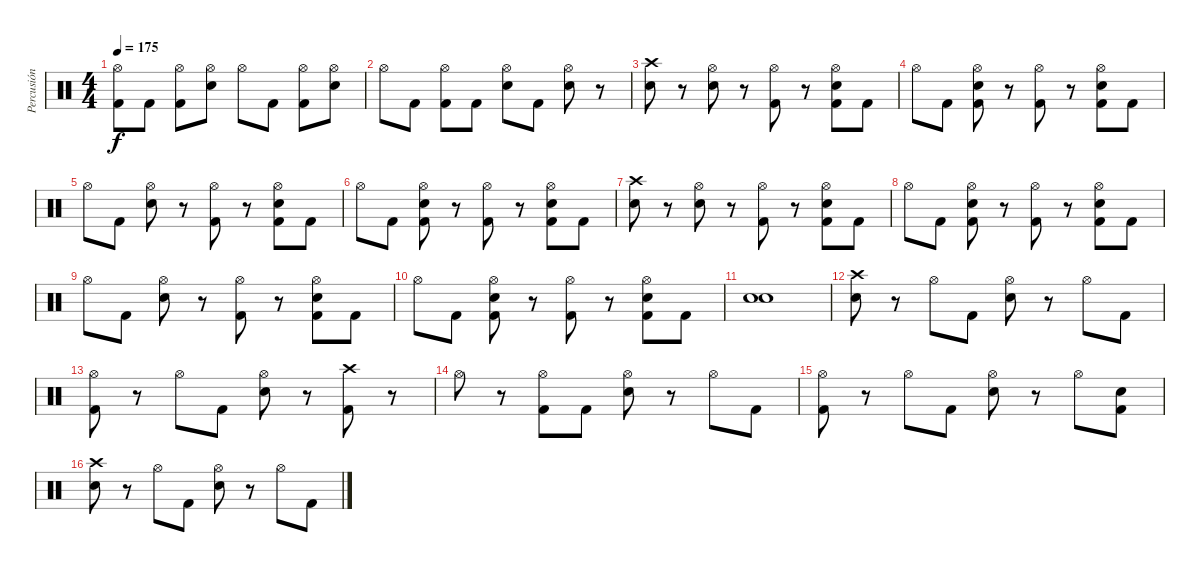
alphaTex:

\track ("Percusión" "Percusión") {instrument percussion}
\staff {score}
\articulation defaults
\ts (4 4)
\tempo 175
\clef neutral
\ks c
("Hi-Hat (open)" "Kick (hit) 2").8{dy f} "Kick (hit) 2".8 ("Hi-Hat (open)" "Kick (hit) 2").8 ("Hi-Hat (open)" "Electric Snare (hit)").8 "Hi-Hat (open)".8 "Kick (hit) 2".8 ("Hi-Hat (open)" "Kick (hit) 2").8 ("Hi-Hat (open)" "Electric Snare (hit)").8 |
"Hi-Hat (open)".8 "Kick (hit) 2".8 ("Hi-Hat (open)" "Kick (hit) 2").8 "Kick (hit) 2".8 ("Hi-Hat (open)" "Electric Snare (hit)").8 "Kick (hit) 2".8 ("Hi-Hat (open)" "Electric Snare (hit)").8 r.8 |
("Crash high (hit)" "Electric Snare (hit)").8 r.8 ("Hi-Hat (open)" "Electric Snare (hit)").8 r.8 ("Hi-Hat (open)" "Kick (hit) 2").8 r.8 ("Hi-Hat (open)" "Electric Snare (hit)" "Kick (hit) 2").8 "Kick (hit) 2".8 |
"Hi-Hat (open)".8 "Kick (hit) 2".8 ("Hi-Hat (open)" "Electric Snare (hit)" "Kick (hit) 2").8 r.8 ("Hi-Hat (open)" "Kick (hit) 2").8 r.8 ("Electric Snare (hit)" "Hi-Hat (open)" "Kick (hit) 2").8 "Kick (hit) 2".8 |
"Hi-Hat (open)".8 "Kick (hit) 2".8 ("Hi-Hat (open)" "Electric Snare (hit)").8 r.8 ("Hi-Hat (open)" "Kick (hit) 2").8 r.8 ("Hi-Hat (open)" "Electric Snare (hit)" "Kick (hit) 2").8 "Kick (hit) 2".8 |
"Hi-Hat (open)".8 "Kick (hit) 2".8 ("Hi-Hat (open)" "Electric Snare (hit)" "Kick (hit) 2").8 r.8 ("Hi-Hat (open)" "Kick (hit) 2").8 r.8 ("Electric Snare (hit)" "Hi-Hat (open)" "Kick (hit) 2").8 "Kick (hit) 2".8 |
("Crash high (hit)" "Electric Snare (hit)").8 r.8 ("Hi-Hat (open)" "Electric Snare (hit)").8 r.8 ("Hi-Hat (open)" "Kick (hit) 2").8 r.8 ("Hi-Hat (open)" "Electric Snare (hit)" "Kick (hit) 2").8 "Kick (hit) 2".8 |
"Hi-Hat (open)".8 "Kick (hit) 2".8 ("Hi-Hat (open)" "Electric Snare (hit)" "Kick (hit) 2").8 r.8 ("Hi-Hat (open)" "Kick (hit) 2").8 r.8 ("Electric Snare (hit)" "Hi-Hat (open)" "Kick (hit) 2").8 "Kick (hit) 2".8 |
"Hi-Hat (open)".8 "Kick (hit) 2".8 ("Hi-Hat (open)" "Electric Snare (hit)").8 r.8 ("Hi-Hat (open)" "Kick (hit) 2").8 r.8 ("Hi-Hat (open)" "Electric Snare (hit)" "Kick (hit) 2").8 "Kick (hit) 2".8 |
"Hi-Hat (open)".8 "Kick (hit) 2".8 ("Hi-Hat (open)" "Electric Snare (hit)" "Kick (hit) 2").8 r.8 ("Hi-Hat (open)" "Kick (hit) 2").8 r.8 ("Electric Snare (hit)" "Hi-Hat (open)" "Kick (hit) 2").8 "Kick (hit) 2".8 |
("Electric Snare (hit)" "Electric Snare (hit)").1 |
("Crash high (hit)" "Electric Snare (hit)").8 r.8 "Hi-Hat (open)".8 "Kick (hit) 2".8 ("Hi-Hat (open)" "Electric Snare (hit)").8 r.8 "Hi-Hat (open)".8 "Kick (hit) 2".8 |
("Hi-Hat (open)" "Kick (hit) 2").8 r.8 "Hi-Hat (open)".8 "Kick (hit) 2".8 ("Hi-Hat (open)" "Electric Snare (hit)").8 r.8 ("Crash high (hit)" "Kick (hit) 2").8 r.8 |
"Hi-Hat (open)".8 r.8 ("Hi-Hat (open)" "Kick (hit) 2").8 "Kick (hit) 2".8 ("Hi-Hat (open)" "Electric Snare (hit)").8 r.8 "Hi-Hat (open)".8 "Kick (hit) 2".8 |
("Hi-Hat (open)" "Kick (hit) 2").8 r.8 "Hi-Hat (open)".8 "Kick (hit) 2".8 ("Electric Snare (hit)" "Hi-Hat (open)").8 r.8 "Hi-Hat (open)".8 ("Electric Snare (hit)" "Kick (hit) 2").8 |
("Crash high (hit)" "Electric Snare (hit)").8 r.8 "Hi-Hat (open)".8 "Kick (hit) 2".8 ("Hi-Hat (open)" "Electric Snare (hit)").8 r.8 "Hi-Hat (open)".8 "Kick (hit) 2".8
